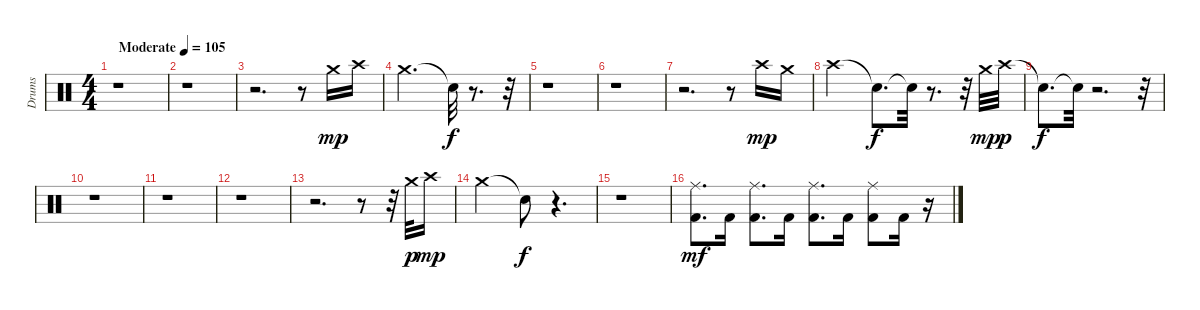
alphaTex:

\track ("Drums" "Drums") {instrument percussion}
\staff {score}
\articulation defaults
\ts (4 4)
\tempo (105 "Moderate")
\clef neutral
\ks c
r.1{dy mp} |
r.1 |
r.2{d} r.8 "Crash medium (hit)".16 "Crash high (hit)".16 |
"Crash medium (hit)".2{d} "Snare (hit)"{t}.32{dy f} r.8{d} r.32 |
r.1 |
r.1 |
r.2{d} r.8 "Crash high (hit)".16{dy mp} "Crash medium (hit)".16 |
"Crash high (hit)".2 "Snare (hit)"{t}.8{d dy f} "Snare (hit)"{t}.32 r.8{d} r.32 "Crash medium (hit)".32{dy mp} "Crash high (hit)".32{dy p} |
"Snare (hit)"{t}.8{d dy f} "Snare (hit)"{t}.32 r.2{d} r.32 |
r.1 |
r.1 |
r.1 |
r.2{d} r.8 r.32 "Crash medium (hit)".32{dy p} "Crash high (hit)".16{dy mp} |
"Crash medium (hit)".2 "Snare (hit)"{t}.8{dy f} r.4{d} |
r.1 |
("Kick (hit) 2" "Ride (middle)").8{d dy mf} "Kick (hit) 2".16 ("Kick (hit) 2" "Ride (middle)").8{d} "Kick (hit) 2".16 ("Kick (hit) 2" "Ride (middle)").8{d} "Kick (hit) 2".16 ("Kick (hit) 2" "Ride (middle)").8 "Kick (hit) 2".16 r.16
